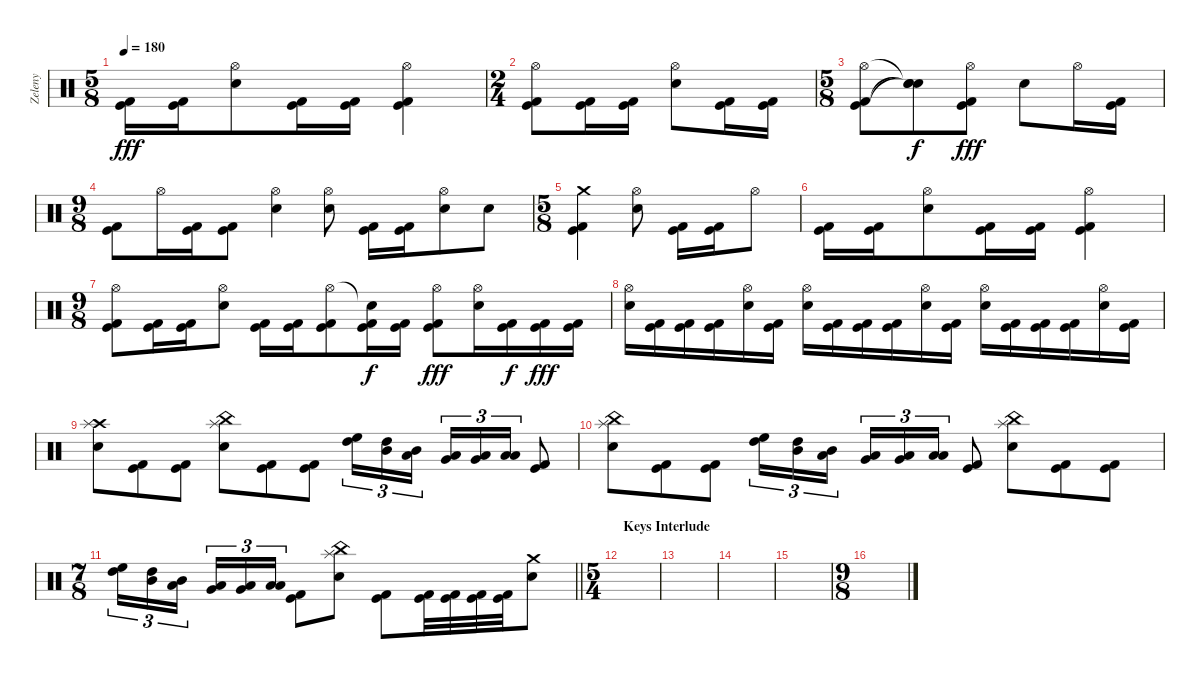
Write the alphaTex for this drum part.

\track ("Zeleny" "Zeleny") {instrument percussion}
\staff {score}
\articulation defaults
\ts (5 8)
\tempo 180
\clef neutral
\ks c
("Kick (hit)" "Kick (hit) 2").16{dy fff} ("Kick (hit)" "Kick (hit) 2").16 ("Hi-Hat (open)" "Snare (hit) 2").8 ("Kick (hit)" "Kick (hit) 2").16 ("Kick (hit)" "Kick (hit) 2").16 ("Hi-Hat (open)" "Kick (hit)" "Kick (hit) 2").4 |
\ts (2 4)
("Hi-Hat (open)" "Kick (hit)" "Kick (hit) 2").8 ("Kick (hit)" "Kick (hit) 2").16 ("Kick (hit)" "Kick (hit) 2").16 ("Hi-Hat (open)" "Snare (hit) 2").8 ("Kick (hit)" "Kick (hit) 2").16 ("Kick (hit)" "Kick (hit) 2").16 |
\ts (5 8)
("Hi-Hat (open)" "Kick (hit)" "Kick (hit) 2").8 ("Snare (hit)"{t} "Snare (hit)"{t} "Snare (hit)"{t}).8{dy f} ("Hi-Hat (open)" "Kick (hit)" "Kick (hit) 2").8{dy fff} "Snare (hit) 2".8 "Hi-Hat (open)".16 ("Kick (hit)" "Kick (hit) 2").16 |
\ts (9 8)
("Kick (hit)" "Kick (hit) 2").8 "Hi-Hat (open)".16 ("Kick (hit)" "Kick (hit) 2").16 ("Kick (hit)" "Kick (hit) 2").8 ("Hi-Hat (open)" "Snare (hit) 2").4 ("Hi-Hat (open)" "Snare (hit) 2").8 ("Kick (hit)" "Kick (hit) 2").16 ("Kick (hit)" "Kick (hit) 2").16 ("Hi-Hat (open)" "Snare (hit) 2").8 "Snare (hit) 2".8 |
\ts (5 8)
("Crash medium (hit)" "Kick (hit)" "Kick (hit) 2").4 ("Hi-Hat (open)" "Snare (hit) 2").8 ("Kick (hit)" "Kick (hit) 2").16 ("Kick (hit)" "Kick (hit) 2").16 "Hi-Hat (open)".8 |
("Kick (hit)" "Kick (hit) 2").16 ("Kick (hit)" "Kick (hit) 2").16 ("Hi-Hat (open)" "Snare (hit) 2").8 ("Kick (hit)" "Kick (hit) 2").16 ("Kick (hit)" "Kick (hit) 2").16 ("Hi-Hat (open)" "Kick (hit)" "Kick (hit) 2").4 |
\ts (9 8)
("Hi-Hat (open)" "Kick (hit)" "Kick (hit) 2").8 ("Kick (hit)" "Kick (hit) 2").16 ("Kick (hit)" "Kick (hit) 2").16 ("Hi-Hat (open)" "Snare (hit) 2").8 ("Kick (hit)" "Kick (hit) 2").16 ("Kick (hit)" "Kick (hit) 2").16 ("Hi-Hat (open)" "Kick (hit)" "Kick (hit) 2").8 ("Snare (hit)"{t} "Kick (hit)" "Kick (hit) 2").16{dy f} ("Kick (hit)" "Kick (hit) 2").16 ("Hi-Hat (open)" "Kick (hit)" "Kick (hit) 2").8{dy fff} ("Hi-Hat (open)" "Snare (hit) 2").16 ("Kick (hit)" "Kick (hit) 2").16{dy f} ("Kick (hit)" "Kick (hit) 2").16{dy fff} ("Kick (hit)" "Kick (hit) 2").16 |
("Hi-Hat (open)" "Snare (hit) 2").16 ("Kick (hit)" "Kick (hit) 2").16 ("Kick (hit)" "Kick (hit) 2").16 ("Kick (hit)" "Kick (hit) 2").16 ("Hi-Hat (open)" "Snare (hit) 2").16 ("Kick (hit)" "Kick (hit) 2").16 ("Hi-Hat (open)" "Snare (hit) 2").16 ("Kick (hit)" "Kick (hit) 2").16 ("Kick (hit)" "Kick (hit) 2").16 ("Kick (hit)" "Kick (hit) 2").16 ("Hi-Hat (open)" "Snare (hit) 2").16 ("Kick (hit)" "Kick (hit) 2").16 ("Hi-Hat (open)" "Snare (hit) 2").16 ("Kick (hit)" "Kick (hit) 2").16 ("Kick (hit)" "Kick (hit) 2").16 ("Kick (hit)" "Kick (hit) 2").16 ("Hi-Hat (open)" "Snare (hit) 2").16 ("Kick (hit)" "Kick (hit) 2").16 |
("Crash high (hit)" "Splash (hit)" "Snare (hit) 2").8 ("Kick (hit)" "Kick (hit) 2").8 ("Kick (hit)" "Kick (hit) 2").8 ("China (hit)" "Splash (hit)" "Snare (hit) 2").8 ("Kick (hit)" "Kick (hit) 2").8 ("Kick (hit)" "Kick (hit) 2").8 ("High Tom (hit)" "High Floor Tom (hit)").16{tu (3 2)} ("Mid Tom (hit)" "High Tom (hit)").16{tu (3 2)} ("Low Tom (hit)" "Mid Tom (hit)").16{tu (3 2) beam splitsecondary} ("Very Low Tom (hit)" "Low Tom (hit)").16{tu (3 2)} ("Low Floor Tom (hit)" "Very Low Tom (hit)").16{tu (3 2)} ("Low Floor Tom (hit)" "Low Floor Tom (hit)").16{tu (3 2)} ("Kick (hit)" "Kick (hit) 2").8 |
("China (hit)" "Splash (hit)" "Snare (hit) 2").8 ("Kick (hit)" "Kick (hit) 2").8 ("Kick (hit)" "Kick (hit) 2").8 ("High Tom (hit)" "High Floor Tom (hit)").16{tu (3 2)} ("Mid Tom (hit)" "High Tom (hit)").16{tu (3 2)} ("Low Tom (hit)" "Mid Tom (hit)").16{tu (3 2) beam splitsecondary} ("Very Low Tom (hit)" "Low Tom (hit)").16{tu (3 2)} ("Low Floor Tom (hit)" "Very Low Tom (hit)").16{tu (3 2)} ("Low Floor Tom (hit)" "Low Floor Tom (hit)").16{tu (3 2)} ("Kick (hit)" "Kick (hit) 2").8 ("China (hit)" "Splash (hit)" "Snare (hit) 2").8 ("Kick (hit)" "Kick (hit) 2").8 ("Kick (hit)" "Kick (hit) 2").8 |
\ts (7 8)
\barLineRight lightlight
("High Tom (hit)" "High Floor Tom (hit)").16{tu (3 2)} ("Mid Tom (hit)" "High Tom (hit)").16{tu (3 2)} ("Low Tom (hit)" "Mid Tom (hit)").16{tu (3 2)} ("Very Low Tom (hit)" "Low Tom (hit)").16{tu (3 2)} ("Low Floor Tom (hit)" "Very Low Tom (hit)").16{tu (3 2)} ("Low Floor Tom (hit)" "Low Floor Tom (hit)").16{tu (3 2)} ("Kick (hit)" "Kick (hit) 2").8 ("China (hit)" "Splash (hit)" "Snare (hit) 2").8 ("Kick (hit)" "Kick (hit) 2").8 ("Kick (hit)" "Kick (hit) 2").32 ("Kick (hit)" "Kick (hit) 2").32 ("Kick (hit)" "Kick (hit) 2").32 ("Kick (hit)" "Kick (hit) 2").32 ("Crash medium (hit)" "Snare (hit) 2").8 |
\ts (5 4)
\section ("" "Keys Interlude")
|
|
|
|
\ts (9 8)
